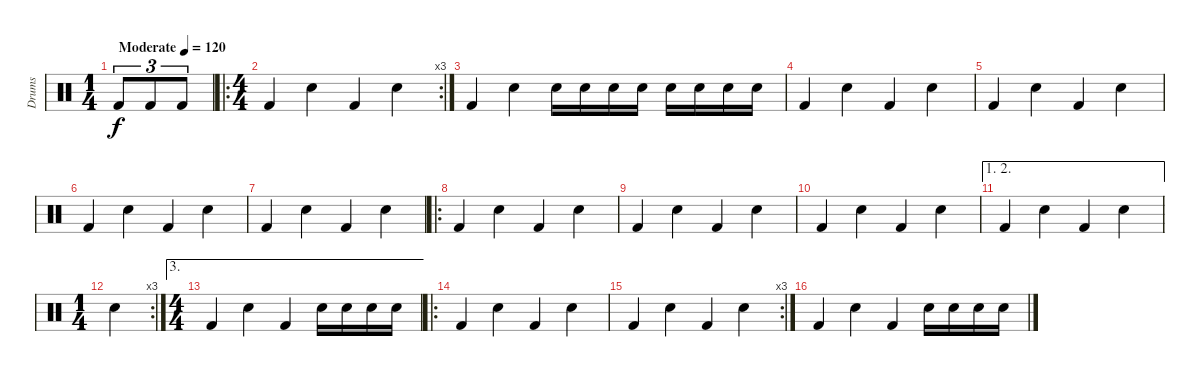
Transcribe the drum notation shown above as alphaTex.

\track ("Drums" "Drums") {instrument percussion}
\staff {score}
\articulation defaults
\ts (1 4)
\tempo (120 "Moderate")
\clef neutral
\ks c "Kick (hit) 2".8{tu (3 2) dy f} "Kick (hit) 2".8{tu (3 2)} "Kick (hit) 2".8{tu (3 2)}
|
\ro
\rc 3
\ts (4 4)
"Kick (hit) 2".4 "Electric Snare (hit)".4 "Kick (hit) 2".4 "Electric Snare (hit)".4 |
"Kick (hit) 2".4 "Electric Snare (hit)".4 "Electric Snare (hit)".16 "Electric Snare (hit)".16 "Electric Snare (hit)".16 "Electric Snare (hit)".16 "Electric Snare (hit)".16 "Electric Snare (hit)".16 "Electric Snare (hit)".16 "Electric Snare (hit)".16 |
"Kick (hit) 2".4 "Electric Snare (hit)".4 "Kick (hit) 2".4 "Electric Snare (hit)".4 |
"Kick (hit) 2".4 "Electric Snare (hit)".4 "Kick (hit) 2".4 "Electric Snare (hit)".4 |
"Kick (hit) 2".4 "Electric Snare (hit)".4 "Kick (hit) 2".4 "Electric Snare (hit)".4 |
"Kick (hit) 2".4 "Electric Snare (hit)".4 "Kick (hit) 2".4 "Electric Snare (hit)".4 |
\ro "Kick (hit) 2".4 "Electric Snare (hit)".4 "Kick (hit) 2".4 "Electric Snare (hit)".4
|
"Kick (hit) 2".4 "Electric Snare (hit)".4 "Kick (hit) 2".4 "Electric Snare (hit)".4 |
"Kick (hit) 2".4 "Electric Snare (hit)".4 "Kick (hit) 2".4 "Electric Snare (hit)".4 |
\ae (1 2)
"Kick (hit) 2".4 "Electric Snare (hit)".4 "Kick (hit) 2".4 "Electric Snare (hit)".4 |
\rc 3
\ts (1 4)
"Electric Snare (hit)".4 |
\ae 3
\ts (4 4)
"Kick (hit) 2".4 "Electric Snare (hit)".4 "Kick (hit) 2".4 "Electric Snare (hit)".16 "Electric Snare (hit)".16 "Electric Snare (hit)".16 "Electric Snare (hit)".16 |
\ro "Kick (hit) 2".4 "Electric Snare (hit)".4 "Kick (hit) 2".4 "Electric Snare (hit)".4
|
\rc 3 "Kick (hit) 2".4 "Electric Snare (hit)".4 "Kick (hit) 2".4 "Electric Snare (hit)".4
|
"Kick (hit) 2".4 "Electric Snare (hit)".4 "Kick (hit) 2".4 "Electric Snare (hit)".16 "Electric Snare (hit)".16 "Electric Snare (hit)".16 "Electric Snare (hit)".16
